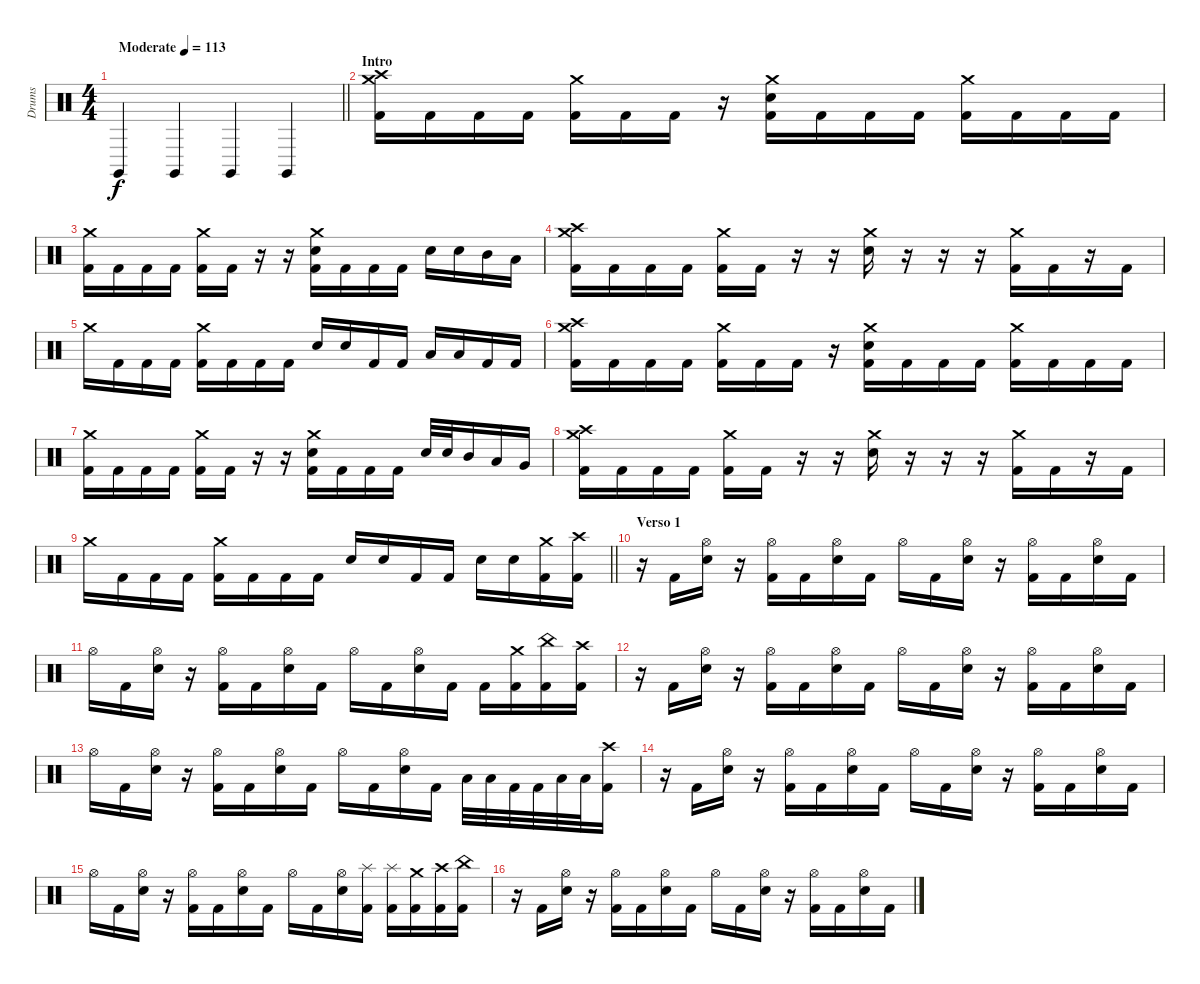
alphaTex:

\track ("Drums" "Drums") {instrument percussion}
\staff {score}
\articulation defaults
\ts (4 4)
\tempo (113 "Moderate")
\clef neutral
\barLineRight lightlight
\ks c "Claves (hit)".4{dy f} "Claves (hit)".4 "Claves (hit)".4 "Claves (hit)".4
|
\section ("" "Intro")
("Crash medium (hit)" "Crash high (hit)" "Kick (hit) 2").16 "Kick (hit) 2".16 "Kick (hit) 2".16 "Kick (hit) 2".16 ("Crash medium (hit)" "Kick (hit) 2").16 "Kick (hit) 2".16 "Kick (hit) 2".16 r.16 ("Crash medium (hit)" "Electric Snare (hit)" "Kick (hit) 2").16 "Kick (hit) 2".16 "Kick (hit) 2".16 "Kick (hit) 2".16 ("Crash medium (hit)" "Kick (hit) 2").16 "Kick (hit) 2".16 "Kick (hit) 2".16 "Kick (hit) 2".16 |
("Crash medium (hit)" "Kick (hit) 2").16 "Kick (hit) 2".16 "Kick (hit) 2".16 "Kick (hit) 2".16 ("Crash medium (hit)" "Kick (hit) 2").16 "Kick (hit) 2".16 r.16 r.16 ("Crash medium (hit)" "Electric Snare (hit)" "Kick (hit) 2").16 "Kick (hit) 2".16 "Kick (hit) 2".16 "Kick (hit) 2".16 "Electric Snare (hit)".16 "Electric Snare (hit)".16 "Mid Tom (hit)".16 "Low Tom (hit)".16 |
("Crash high (hit)" "Crash medium (hit)" "Kick (hit) 2").16 "Kick (hit) 2".16 "Kick (hit) 2".16 "Kick (hit) 2".16 ("Crash medium (hit)" "Kick (hit) 2").16 "Kick (hit) 2".16 r.16 r.16 ("Crash medium (hit)" "Electric Snare (hit)").16 r.16 r.16 r.16 ("Crash medium (hit)" "Kick (hit) 2").16 "Kick (hit) 2".16 r.16 "Kick (hit) 2".16 |
"Crash medium (hit)".16 "Kick (hit) 2".16 "Kick (hit) 2".16 "Kick (hit) 2".16 ("Crash medium (hit)" "Kick (hit) 2").16 "Kick (hit) 2".16 "Kick (hit) 2".16 "Kick (hit) 2".16 "Electric Snare (hit)".16 "Electric Snare (hit)".16 "Kick (hit) 2".16 "Kick (hit) 2".16 "Low Tom (hit)".16 "Low Tom (hit)".16 "Kick (hit) 2".16 "Kick (hit) 2".16 |
("Crash medium (hit)" "Crash high (hit)" "Kick (hit) 2").16 "Kick (hit) 2".16 "Kick (hit) 2".16 "Kick (hit) 2".16 ("Crash medium (hit)" "Kick (hit) 2").16 "Kick (hit) 2".16 "Kick (hit) 2".16 r.16 ("Crash medium (hit)" "Electric Snare (hit)" "Kick (hit) 2").16 "Kick (hit) 2".16 "Kick (hit) 2".16 "Kick (hit) 2".16 ("Crash medium (hit)" "Kick (hit) 2").16 "Kick (hit) 2".16 "Kick (hit) 2".16 "Kick (hit) 2".16 |
("Crash medium (hit)" "Kick (hit) 2").16 "Kick (hit) 2".16 "Kick (hit) 2".16 "Kick (hit) 2".16 ("Crash medium (hit)" "Kick (hit) 2").16 "Kick (hit) 2".16 r.16 r.16 ("Crash medium (hit)" "Electric Snare (hit)" "Kick (hit) 2").16 "Kick (hit) 2".16 "Kick (hit) 2".16 "Kick (hit) 2".16 "Electric Snare (hit)".32 "Electric Snare (hit)".32 "Mid Tom (hit)".16 "Low Tom (hit)".16 "Very Low Tom (hit)".16 |
("Crash medium (hit)" "Crash high (hit)" "Kick (hit) 2").16 "Kick (hit) 2".16 "Kick (hit) 2".16 "Kick (hit) 2".16 ("Crash medium (hit)" "Kick (hit) 2").16 "Kick (hit) 2".16 r.16 r.16 ("Crash medium (hit)" "Electric Snare (hit)").16 r.16 r.16 r.16 ("Crash medium (hit)" "Kick (hit) 2").16 "Kick (hit) 2".16 r.16 "Kick (hit) 2".16 |
\barLineRight lightlight "Crash medium (hit)".16 "Kick (hit) 2".16 "Kick (hit) 2".16 "Kick (hit) 2".16
("Crash medium (hit)" "Kick (hit) 2").16 "Kick (hit) 2".16 "Kick (hit) 2".16 "Kick (hit) 2".16 "Electric Snare (hit)".16 "Electric Snare (hit)".16 "Kick (hit) 2".16 "Kick (hit) 2".16 "Electric Snare (hit)".16 "Electric Snare (hit)".16 ("Crash medium (hit)" "Kick (hit) 2").16 ("Crash high (hit)" "Kick (hit) 2").16 |
\section ("" "Verso 1")
r.16 "Kick (hit) 2".16 ("Hi-Hat (open)" "Electric Snare (hit)").16 r.16 ("Hi-Hat (open)" "Kick (hit) 2").16 "Kick (hit) 2".16 ("Hi-Hat (open)" "Electric Snare (hit)").16 "Kick (hit) 2".16 "Hi-Hat (open)".16 "Kick (hit) 2".16 ("Hi-Hat (open)" "Electric Snare (hit)").16 r.16 ("Hi-Hat (open)" "Kick (hit) 2").16 "Kick (hit) 2".16 ("Hi-Hat (open)" "Electric Snare (hit)").16 "Kick (hit) 2".16 |
"Hi-Hat (open)".16 "Kick (hit) 2".16 ("Hi-Hat (open)" "Electric Snare (hit)").16 r.16 ("Hi-Hat (open)" "Kick (hit) 2").16 "Kick (hit) 2".16 ("Hi-Hat (open)" "Electric Snare (hit)").16 "Kick (hit) 2".16 "Hi-Hat (open)".16 "Kick (hit) 2".16 ("Hi-Hat (open)" "Electric Snare (hit)").16 "Kick (hit) 2".16 "Kick (hit) 2".16 ("Crash medium (hit)" "Kick (hit) 2").16 ("China (hit)" "Kick (hit) 2").16 ("Crash high (hit)" "Kick (hit) 2").16 |
r.16 "Kick (hit) 2".16 ("Hi-Hat (open)" "Electric Snare (hit)").16 r.16 ("Hi-Hat (open)" "Kick (hit) 2").16 "Kick (hit) 2".16 ("Hi-Hat (open)" "Electric Snare (hit)").16 "Kick (hit) 2".16 "Hi-Hat (open)".16 "Kick (hit) 2".16 ("Hi-Hat (open)" "Electric Snare (hit)").16 r.16 ("Hi-Hat (open)" "Kick (hit) 2").16 "Kick (hit) 2".16 ("Hi-Hat (open)" "Electric Snare (hit)").16 "Kick (hit) 2".16 |
"Hi-Hat (open)".16 "Kick (hit) 2".16 ("Hi-Hat (open)" "Electric Snare (hit)").16 r.16 ("Hi-Hat (open)" "Kick (hit) 2").16 "Kick (hit) 2".16 ("Hi-Hat (open)" "Electric Snare (hit)").16 "Kick (hit) 2".16 "Hi-Hat (open)".16 "Kick (hit) 2".16 ("Hi-Hat (open)" "Electric Snare (hit)").16 "Kick (hit) 2".16 "Low Tom (hit)".32 "Low Tom (hit)".32 "Kick (hit) 2".32 "Kick (hit) 2".32 "Low Floor Tom (hit)".32 "Low Floor Tom (hit)".32 ("Crash high (hit)" "Kick (hit) 2").16 |
r.16 "Kick (hit) 2".16 ("Hi-Hat (open)" "Electric Snare (hit)").16 r.16 ("Hi-Hat (open)" "Kick (hit) 2").16 "Kick (hit) 2".16 ("Hi-Hat (open)" "Electric Snare (hit)").16 "Kick (hit) 2".16 "Hi-Hat (open)".16 "Kick (hit) 2".16 ("Hi-Hat (open)" "Electric Snare (hit)").16 r.16 ("Hi-Hat (open)" "Kick (hit) 2").16 "Kick (hit) 2".16 ("Hi-Hat (open)" "Electric Snare (hit)").16 "Kick (hit) 2".16 |
"Hi-Hat (open)".16 "Kick (hit) 2".16 ("Hi-Hat (open)" "Electric Snare (hit)").16 r.16 ("Hi-Hat (open)" "Kick (hit) 2").16 "Kick (hit) 2".16 ("Hi-Hat (open)" "Electric Snare (hit)").16 "Kick (hit) 2".16 "Hi-Hat (open)".16 "Kick (hit) 2".16 ("Hi-Hat (open)" "Electric Snare (hit)").16 ("Splash (hit)" "Kick (hit) 2").16 ("Splash (hit)" "Kick (hit) 2").16 ("Crash medium (hit)" "Kick (hit) 2").16 ("Crash high (hit)" "Kick (hit) 2").16 ("China (hit)" "Kick (hit) 2").16 |
r.16 "Kick (hit) 2".16 ("Hi-Hat (open)" "Electric Snare (hit)").16 r.16 ("Hi-Hat (open)" "Kick (hit) 2").16 "Kick (hit) 2".16 ("Hi-Hat (open)" "Electric Snare (hit)").16 "Kick (hit) 2".16 "Hi-Hat (open)".16 "Kick (hit) 2".16 ("Hi-Hat (open)" "Electric Snare (hit)").16 r.16 ("Hi-Hat (open)" "Kick (hit) 2").16 "Kick (hit) 2".16 ("Hi-Hat (open)" "Electric Snare (hit)").16 "Kick (hit) 2".16
